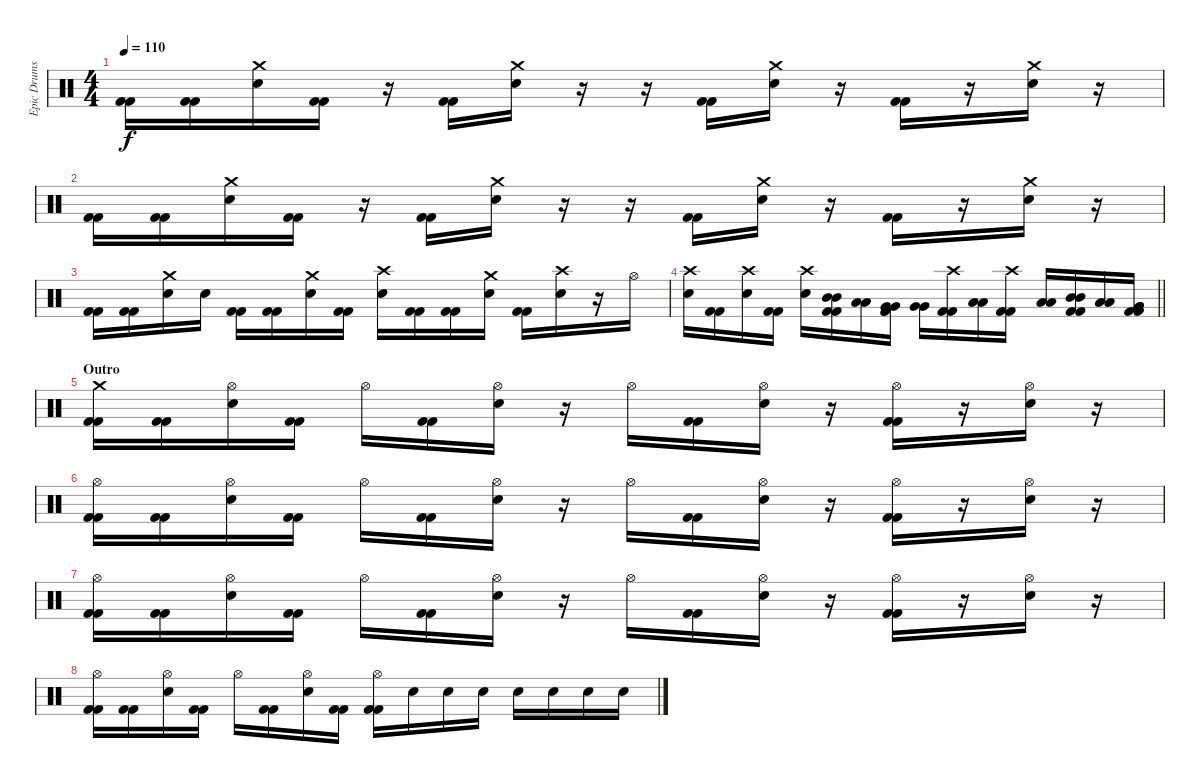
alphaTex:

\track ("Epic Drums" "Epic Drums") {instrument percussion}
\staff {score}
\articulation defaults
\ts (4 4)
\tempo 110
\clef neutral
\ks c
("Kick (hit) 2" "Kick (hit) 2").16{dy f} ("Kick (hit) 2" "Kick (hit) 2").16 ("Crash medium (hit)" "Electric Snare (hit)").16 ("Kick (hit) 2" "Kick (hit) 2").16 r.16 ("Kick (hit) 2" "Kick (hit) 2").16 ("Crash medium (hit)" "Electric Snare (hit)").16 r.16 r.16 ("Kick (hit) 2" "Kick (hit) 2").16 ("Crash medium (hit)" "Electric Snare (hit)").16 r.16 ("Kick (hit) 2" "Kick (hit) 2").16 r.16 ("Crash medium (hit)" "Electric Snare (hit)").16 r.16 |
("Kick (hit) 2" "Kick (hit) 2").16 ("Kick (hit) 2" "Kick (hit) 2").16 ("Crash medium (hit)" "Electric Snare (hit)").16 ("Kick (hit) 2" "Kick (hit) 2").16 r.16 ("Kick (hit) 2" "Kick (hit) 2").16 ("Crash medium (hit)" "Electric Snare (hit)").16 r.16 r.16 ("Kick (hit) 2" "Kick (hit) 2").16 ("Crash medium (hit)" "Electric Snare (hit)").16 r.16 ("Kick (hit) 2" "Kick (hit) 2").16 r.16 ("Crash medium (hit)" "Electric Snare (hit)").16 r.16 |
("Kick (hit) 2" "Kick (hit) 2").16 ("Kick (hit) 2" "Kick (hit) 2").16 ("Crash medium (hit)" "Electric Snare (hit)").16 "Electric Snare (hit)".16 ("Kick (hit) 2" "Kick (hit) 2").16 ("Kick (hit) 2" "Kick (hit) 2").16 ("Crash medium (hit)" "Electric Snare (hit)").16 ("Kick (hit) 2" "Kick (hit) 2").16 ("Crash high (hit)" "Electric Snare (hit)").16 ("Kick (hit) 2" "Kick (hit) 2").16 ("Kick (hit) 2" "Kick (hit) 2").16 ("Crash medium (hit)" "Electric Snare (hit)").16 ("Kick (hit) 2" "Kick (hit) 2").16 ("Crash high (hit)" "Electric Snare (hit)").16 r.16 "Hi-Hat (open)".16 |
\barLineRight lightlight
("Crash high (hit)" "Electric Snare (hit)").16 ("Kick (hit) 2" "Kick (hit) 2").16 ("Crash high (hit)" "Electric Snare (hit)").16 ("Kick (hit) 2" "Kick (hit) 2").16 ("Crash high (hit)" "Electric Snare (hit)").16 ("Mid Tom (hit)" "Mid Tom (hit)" "Kick (hit) 2" "Kick (hit) 2").16 ("Low Tom (hit)" "Low Tom (hit)").16 ("Very Low Tom (hit)" "Very Low Tom (hit)" "Kick (hit) 2" "Kick (hit) 2").16 ("Very Low Tom (hit)" "Very Low Tom (hit)").16 ("Crash high (hit)" "Kick (hit) 2" "Kick (hit) 2").16 ("Low Tom (hit)" "Low Tom (hit)").16 ("Crash high (hit)" "Kick (hit) 2" "Kick (hit) 2").16 ("Low Tom (hit)" "Low Tom (hit)").16 ("Mid Tom (hit)" "Mid Tom (hit)" "Kick (hit) 2" "Kick (hit) 2").16 ("Low Tom (hit)" "Low Tom (hit)").16 ("Very Low Tom (hit)" "Very Low Tom (hit)" "Kick (hit) 2" "Kick (hit) 2").16 |
\section ("" "Outro")
("Crash medium (hit)" "Kick (hit) 2" "Kick (hit) 2").16 ("Kick (hit) 2" "Kick (hit) 2").16 ("Hi-Hat (open)" "Electric Snare (hit)").16 ("Kick (hit) 2" "Kick (hit) 2").16 "Hi-Hat (open)".16 ("Kick (hit) 2" "Kick (hit) 2").16 ("Hi-Hat (open)" "Electric Snare (hit)").16 r.16 "Hi-Hat (open)".16 ("Kick (hit) 2" "Kick (hit) 2").16 ("Hi-Hat (open)" "Electric Snare (hit)").16 r.16 ("Hi-Hat (open)" "Kick (hit) 2" "Kick (hit) 2").16 r.16 ("Hi-Hat (open)" "Electric Snare (hit)").16 r.16 |
("Hi-Hat (open)" "Kick (hit) 2" "Kick (hit) 2").16 ("Kick (hit) 2" "Kick (hit) 2").16 ("Hi-Hat (open)" "Electric Snare (hit)").16 ("Kick (hit) 2" "Kick (hit) 2").16 "Hi-Hat (open)".16 ("Kick (hit) 2" "Kick (hit) 2").16 ("Hi-Hat (open)" "Electric Snare (hit)").16 r.16 "Hi-Hat (open)".16 ("Kick (hit) 2" "Kick (hit) 2").16 ("Hi-Hat (open)" "Electric Snare (hit)").16 r.16 ("Hi-Hat (open)" "Kick (hit) 2" "Kick (hit) 2").16 r.16 ("Hi-Hat (open)" "Electric Snare (hit)").16 r.16 |
("Hi-Hat (open)" "Kick (hit) 2" "Kick (hit) 2").16 ("Kick (hit) 2" "Kick (hit) 2").16 ("Hi-Hat (open)" "Electric Snare (hit)").16 ("Kick (hit) 2" "Kick (hit) 2").16 "Hi-Hat (open)".16 ("Kick (hit) 2" "Kick (hit) 2").16 ("Hi-Hat (open)" "Electric Snare (hit)").16 r.16 "Hi-Hat (open)".16 ("Kick (hit) 2" "Kick (hit) 2").16 ("Hi-Hat (open)" "Electric Snare (hit)").16 r.16 ("Hi-Hat (open)" "Kick (hit) 2" "Kick (hit) 2").16 r.16 ("Hi-Hat (open)" "Electric Snare (hit)").16 r.16 |
("Hi-Hat (open)" "Kick (hit) 2" "Kick (hit) 2").16 ("Kick (hit) 2" "Kick (hit) 2").16 ("Hi-Hat (open)" "Electric Snare (hit)").16 ("Kick (hit) 2" "Kick (hit) 2").16 "Hi-Hat (open)".16 ("Kick (hit) 2" "Kick (hit) 2").16 ("Hi-Hat (open)" "Electric Snare (hit)").16 ("Kick (hit) 2" "Kick (hit) 2").16 ("Hi-Hat (open)" "Kick (hit) 2" "Kick (hit) 2").16 "Electric Snare (hit)".16 "Electric Snare (hit)".16 "Electric Snare (hit)".16 "Electric Snare (hit)".16 "Electric Snare (hit)".16 "Electric Snare (hit)".16 "Electric Snare (hit)".16
